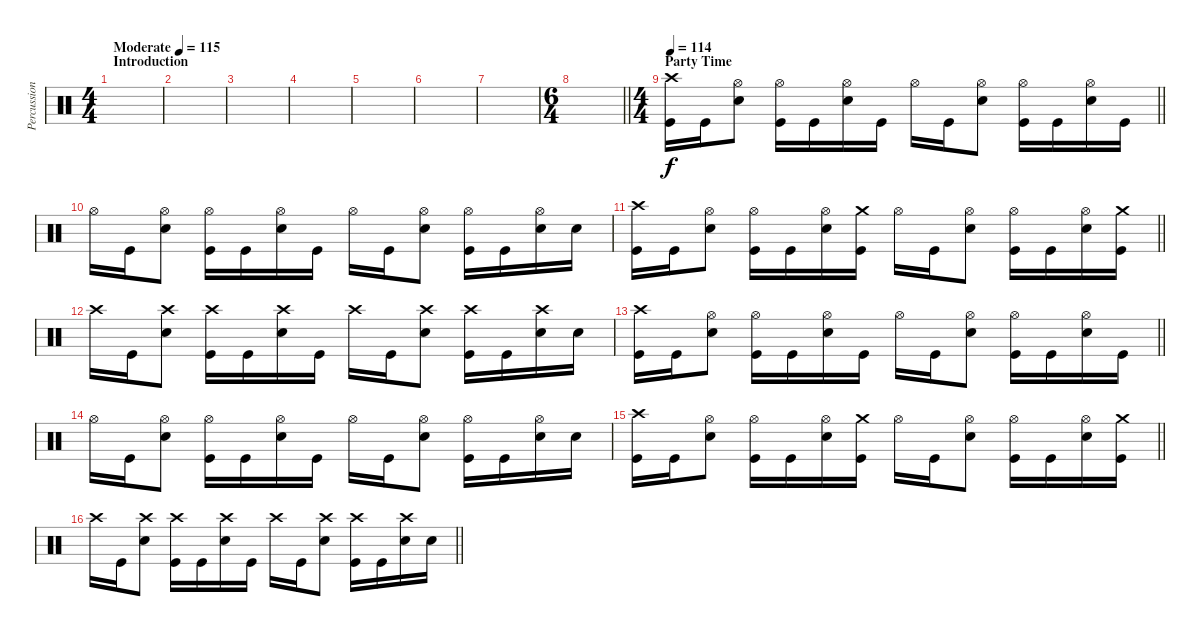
\track ("Percussion" "Percussion") {instrument percussion}
\staff {score}
\articulation defaults
\ts (4 4)
\section ("" "Introduction")
\tempo (115 "Moderate")
\clef neutral
\ks c
|
|
|
|
|
|
|
\ts (6 4)
\barLineRight lightlight
|
\ts (4 4)
\section ("" "Party Time")
\tempo 114
\barLineRight lightlight
("Crash high (hit)" "Kick (hit)").16 "Kick (hit)".16 ("Hi-Hat (open)" "Electric Snare (hit)").8 ("Hi-Hat (open)" "Kick (hit)").16 "Kick (hit)".16 ("Hi-Hat (open)" "Electric Snare (hit)").16 "Kick (hit)".16 "Hi-Hat (open)".16 "Kick (hit)".16 ("Hi-Hat (open)" "Electric Snare (hit)").8 ("Hi-Hat (open)" "Kick (hit)").16 "Kick (hit)".16 ("Hi-Hat (open)" "Electric Snare (hit)").16 "Kick (hit)".16 |
"Hi-Hat (open)".16 "Kick (hit)".16 ("Hi-Hat (open)" "Electric Snare (hit)").8 ("Hi-Hat (open)" "Kick (hit)").16 "Kick (hit)".16 ("Hi-Hat (open)" "Electric Snare (hit)").16 "Kick (hit)".16 "Hi-Hat (open)".16 "Kick (hit)".16 ("Hi-Hat (open)" "Electric Snare (hit)").8 ("Hi-Hat (open)" "Kick (hit)").16 "Kick (hit)".16 ("Hi-Hat (open)" "Electric Snare (hit)").16 "Electric Snare (hit)".16 |
\barLineRight lightlight
("Crash high (hit)" "Kick (hit)").16 "Kick (hit)".16 ("Hi-Hat (open)" "Electric Snare (hit)").8 ("Hi-Hat (open)" "Kick (hit)").16 "Kick (hit)".16 ("Hi-Hat (open)" "Electric Snare (hit)").16 ("Crash medium (hit)" "Kick (hit)").16 "Hi-Hat (open)".16 "Kick (hit)".16 ("Hi-Hat (open)" "Electric Snare (hit)").8 ("Hi-Hat (open)" "Kick (hit)").16 "Kick (hit)".16 ("Hi-Hat (open)" "Electric Snare (hit)").16 ("Crash medium (hit)" "Kick (hit)").16 |
"Crash high (hit)".16 "Kick (hit)".16 ("Crash high (hit)" "Electric Snare (hit)").8 ("Crash high (hit)" "Kick (hit)").16 "Kick (hit)".16 ("Crash high (hit)" "Electric Snare (hit)").16 "Kick (hit)".16 "Crash high (hit)".16 "Kick (hit)".16 ("Crash high (hit)" "Electric Snare (hit)").8 ("Crash high (hit)" "Kick (hit)").16 "Kick (hit)".16 ("Crash high (hit)" "Electric Snare (hit)").16 "Electric Snare (hit)".16 |
\barLineRight lightlight
("Crash high (hit)" "Kick (hit)").16 "Kick (hit)".16 ("Hi-Hat (open)" "Electric Snare (hit)").8 ("Hi-Hat (open)" "Kick (hit)").16 "Kick (hit)".16 ("Hi-Hat (open)" "Electric Snare (hit)").16 "Kick (hit)".16 "Hi-Hat (open)".16 "Kick (hit)".16 ("Hi-Hat (open)" "Electric Snare (hit)").8 ("Hi-Hat (open)" "Kick (hit)").16 "Kick (hit)".16 ("Hi-Hat (open)" "Electric Snare (hit)").16 "Kick (hit)".16 |
"Hi-Hat (open)".16 "Kick (hit)".16 ("Hi-Hat (open)" "Electric Snare (hit)").8 ("Hi-Hat (open)" "Kick (hit)").16 "Kick (hit)".16 ("Hi-Hat (open)" "Electric Snare (hit)").16 "Kick (hit)".16 "Hi-Hat (open)".16 "Kick (hit)".16 ("Hi-Hat (open)" "Electric Snare (hit)").8 ("Hi-Hat (open)" "Kick (hit)").16 "Kick (hit)".16 ("Hi-Hat (open)" "Electric Snare (hit)").16 "Electric Snare (hit)".16 |
\barLineRight lightlight
("Crash high (hit)" "Kick (hit)").16 "Kick (hit)".16 ("Hi-Hat (open)" "Electric Snare (hit)").8 ("Hi-Hat (open)" "Kick (hit)").16 "Kick (hit)".16 ("Hi-Hat (open)" "Electric Snare (hit)").16 ("Crash medium (hit)" "Kick (hit)").16 "Hi-Hat (open)".16 "Kick (hit)".16 ("Hi-Hat (open)" "Electric Snare (hit)").8 ("Hi-Hat (open)" "Kick (hit)").16 "Kick (hit)".16 ("Hi-Hat (open)" "Electric Snare (hit)").16 ("Crash medium (hit)" "Kick (hit)").16 |
\barLineRight lightlight "Crash high (hit)".16 "Kick (hit)".16
("Crash high (hit)" "Electric Snare (hit)").8 ("Crash high (hit)" "Kick (hit)").16 "Kick (hit)".16 ("Crash high (hit)" "Electric Snare (hit)").16 "Kick (hit)".16 "Crash high (hit)".16 "Kick (hit)".16 ("Crash high (hit)" "Electric Snare (hit)").8 ("Crash high (hit)" "Kick (hit)").16 "Kick (hit)".16 ("Crash high (hit)" "Electric Snare (hit)").16 "Electric Snare (hit)".16
